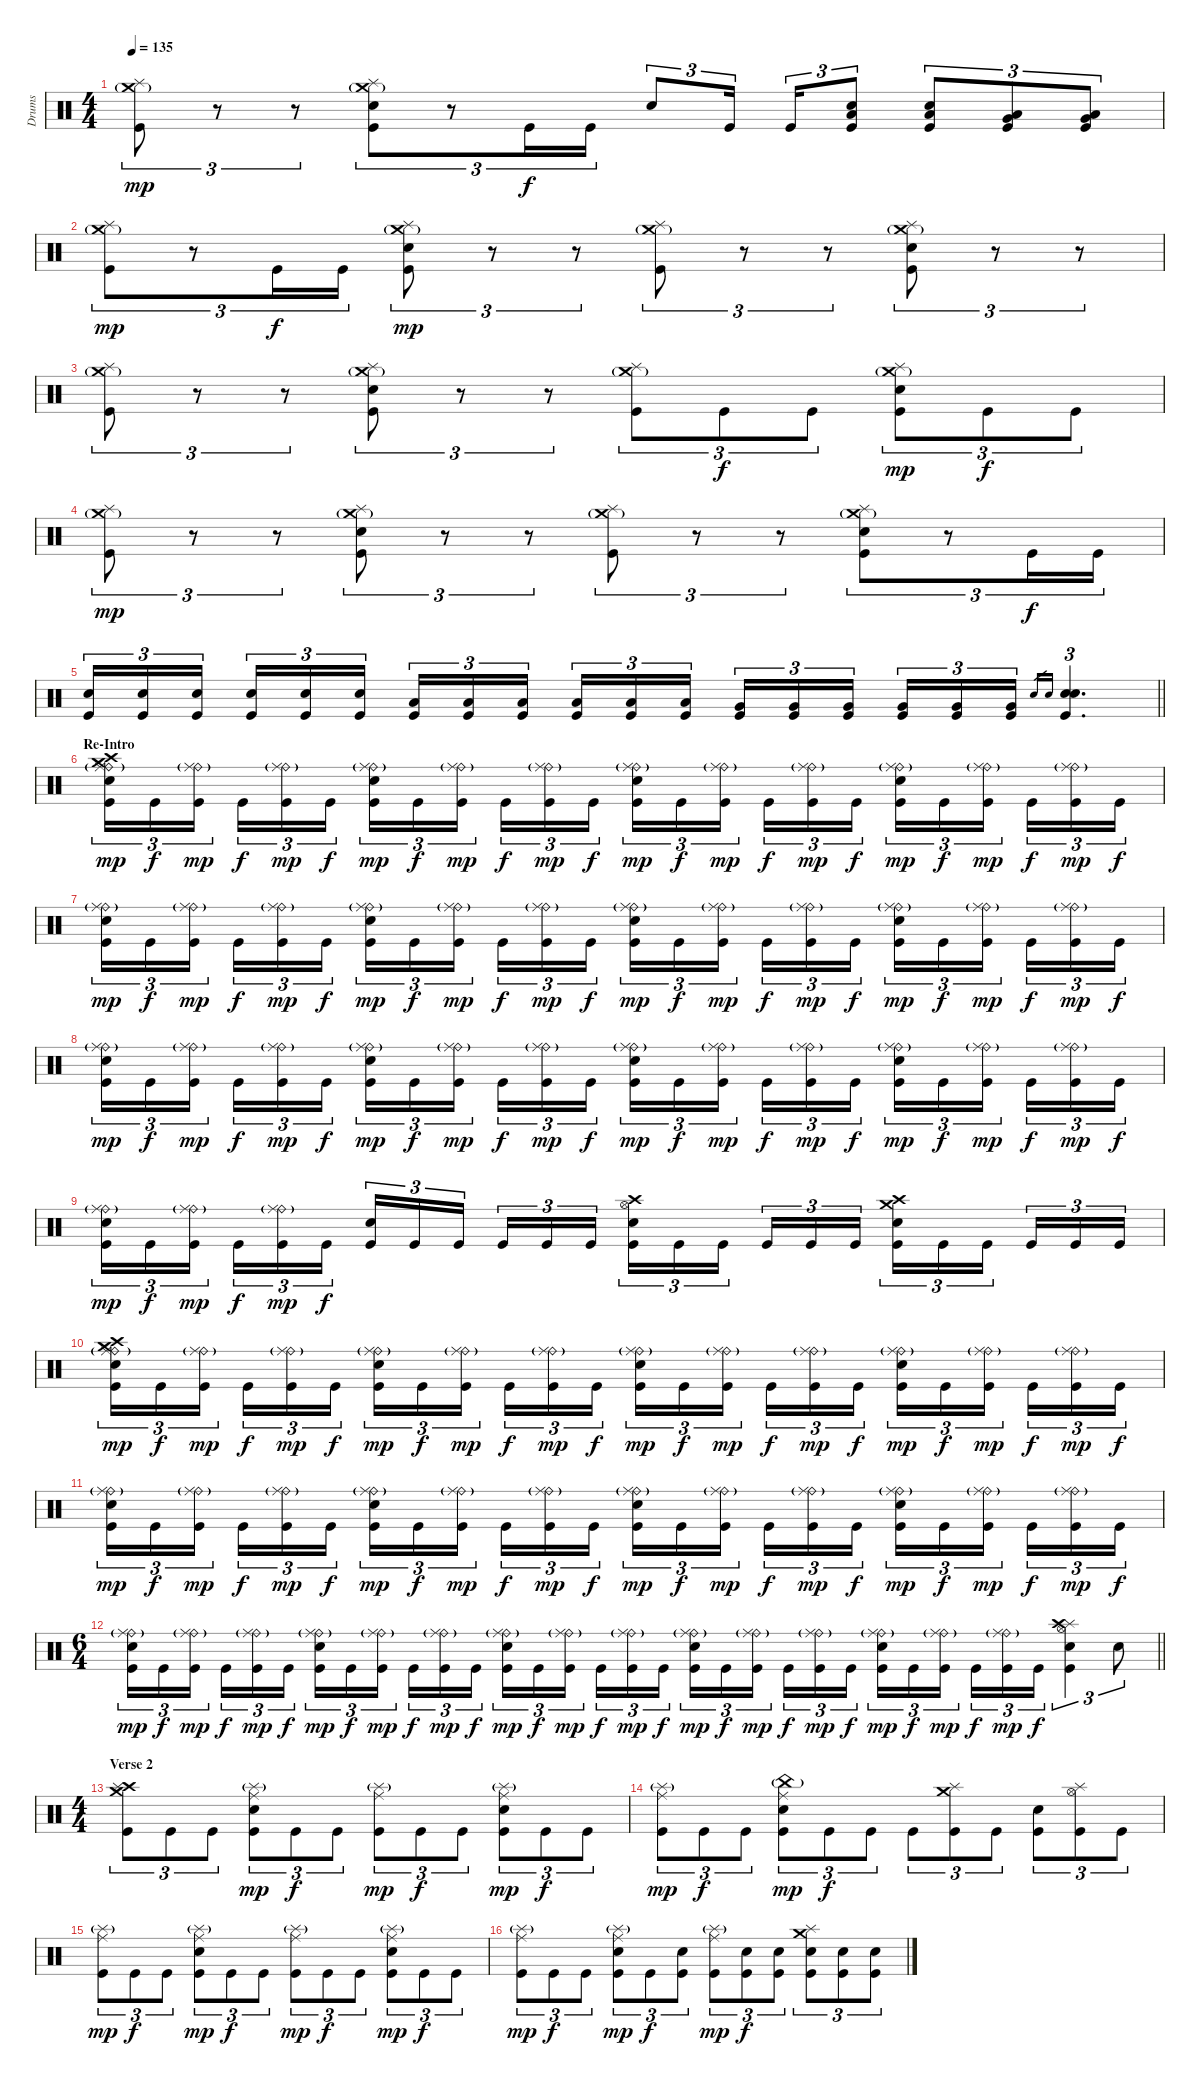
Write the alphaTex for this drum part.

\track ("Drums" "Drums") {instrument percussion}
\staff {score}
\articulation defaults
\ts (4 4)
\tempo 135
\clef neutral
\ks c
("Crash medium (hit)"{g} "Splash (hit)" "Kick (hit)").8{tu (3 2) dy mp} r.8{tu (3 2)} r.8{tu (3 2)} ("Crash medium (hit)"{g} "Splash (hit)" "Electric Snare (hit)" "Kick (hit)").8{tu (3 2)} r.8{tu (3 2)} "Kick (hit)".16{tu (3 2) dy f} "Kick (hit)".16{tu (3 2)} "Electric Snare (hit)".8{tu (3 2)} "Kick (hit)".16{tu (3 2) beam splitsecondary} "Kick (hit)".16{tu (3 2)} ("Kick (hit)" "Low Tom (hit)" "Electric Snare (hit)").8{tu (3 2)} ("Kick (hit)" "Low Tom (hit)" "Electric Snare (hit)").8{tu (3 2)} ("Kick (hit)" "Very Low Tom (hit)" "Low Floor Tom (hit)").8{tu (3 2)} ("Kick (hit)" "Very Low Tom (hit)" "Low Floor Tom (hit)").8{tu (3 2)} |
("Crash medium (hit)"{g} "Splash (hit)" "Kick (hit)").8{tu (3 2) dy mp} r.8{tu (3 2)} "Kick (hit)".16{tu (3 2) dy f} "Kick (hit)".16{tu (3 2)} ("Crash medium (hit)"{g} "Splash (hit)" "Electric Snare (hit)" "Kick (hit)").8{tu (3 2) dy mp} r.8{tu (3 2)} r.8{tu (3 2)} ("Crash medium (hit)"{g} "Splash (hit)" "Kick (hit)").8{tu (3 2)} r.8{tu (3 2)} r.8{tu (3 2)} ("Crash medium (hit)"{g} "Splash (hit)" "Electric Snare (hit)" "Kick (hit)").8{tu (3 2)} r.8{tu (3 2)} r.8{tu (3 2)} |
("Crash medium (hit)"{g} "Splash (hit)" "Kick (hit)").8{tu (3 2)} r.8{tu (3 2)} r.8{tu (3 2)} ("Crash medium (hit)"{g} "Splash (hit)" "Electric Snare (hit)" "Kick (hit)").8{tu (3 2)} r.8{tu (3 2)} r.8{tu (3 2)} ("Crash medium (hit)"{g} "Splash (hit)" "Kick (hit)").8{tu (3 2)} "Kick (hit)".8{tu (3 2) dy f} "Kick (hit)".8{tu (3 2)} ("Crash medium (hit)"{g} "Splash (hit)" "Electric Snare (hit)" "Kick (hit)").8{tu (3 2) dy mp} "Kick (hit)".8{tu (3 2) dy f} "Kick (hit)".8{tu (3 2)} |
("Crash medium (hit)"{g} "Splash (hit)" "Kick (hit)").8{tu (3 2) dy mp} r.8{tu (3 2)} r.8{tu (3 2)} ("Crash medium (hit)"{g} "Splash (hit)" "Electric Snare (hit)" "Kick (hit)").8{tu (3 2)} r.8{tu (3 2)} r.8{tu (3 2)} ("Crash medium (hit)"{g} "Splash (hit)" "Kick (hit)").8{tu (3 2)} r.8{tu (3 2)} r.8{tu (3 2)} ("Crash medium (hit)"{g} "Splash (hit)" "Electric Snare (hit)" "Kick (hit)").8{tu (3 2)} r.8{tu (3 2)} "Kick (hit)".16{tu (3 2) dy f} "Kick (hit)".16{tu (3 2)} |
\barLineRight lightlight
("Kick (hit)" "Electric Snare (hit)").16{tu (3 2)} ("Kick (hit)" "Electric Snare (hit)").16{tu (3 2)} ("Kick (hit)" "Electric Snare (hit)").16{tu (3 2) beam splitsecondary} ("Kick (hit)" "Electric Snare (hit)").16{tu (3 2)} ("Kick (hit)" "Electric Snare (hit)").16{tu (3 2)} ("Kick (hit)" "Electric Snare (hit)").16{tu (3 2)} ("Kick (hit)" "Low Tom (hit)").16{tu (3 2)} ("Kick (hit)" "Low Tom (hit)").16{tu (3 2)} ("Kick (hit)" "Low Tom (hit)").16{tu (3 2) beam splitsecondary} ("Kick (hit)" "Low Tom (hit)").16{tu (3 2)} ("Kick (hit)" "Low Tom (hit)").16{tu (3 2)} ("Kick (hit)" "Low Tom (hit)").16{tu (3 2)} ("Kick (hit)" "Very Low Tom (hit)").16{tu (3 2)} ("Kick (hit)" "Very Low Tom (hit)").16{tu (3 2)} ("Kick (hit)" "Very Low Tom (hit)").16{tu (3 2) beam splitsecondary} ("Kick (hit)" "Very Low Tom (hit)").16{tu (3 2)} ("Kick (hit)" "Very Low Tom (hit)").16{tu (3 2)} ("Kick (hit)" "Very Low Tom (hit)").16{tu (3 2)} "Snare (hit) 2".16{gr} "Electric Snare (hit)".16{gr} ("Snare (hit) 2" "Electric Snare (hit)" "Kick (hit)").4{d tu (3 2)} |
\section ("" "Re-Intro")
("Crash high (hit)" "Ride (bell)" "Ride (middle)"{g} "Crash medium (hit)" "Electric Snare (hit)" "Kick (hit)").16{tu (3 2) dy mp} "Kick (hit)".16{tu (3 2) dy f} ("Ride (bell)" "Ride (middle)"{g} "Kick (hit)").16{tu (3 2) dy mp beam splitsecondary} "Kick (hit)".16{tu (3 2) dy f} ("Ride (bell)" "Ride (middle)"{g} "Kick (hit)").16{tu (3 2) dy mp} "Kick (hit)".16{tu (3 2) dy f} ("Ride (bell)" "Ride (middle)"{g} "Electric Snare (hit)" "Kick (hit)").16{tu (3 2) dy mp} "Kick (hit)".16{tu (3 2) dy f} ("Ride (bell)" "Ride (middle)"{g} "Kick (hit)").16{tu (3 2) dy mp beam splitsecondary} "Kick (hit)".16{tu (3 2) dy f} ("Ride (bell)" "Ride (middle)"{g} "Kick (hit)").16{tu (3 2) dy mp} "Kick (hit)".16{tu (3 2) dy f} ("Ride (bell)" "Ride (middle)"{g} "Electric Snare (hit)" "Kick (hit)").16{tu (3 2) dy mp} "Kick (hit)".16{tu (3 2) dy f} ("Ride (bell)" "Ride (middle)"{g} "Kick (hit)").16{tu (3 2) dy mp beam splitsecondary} "Kick (hit)".16{tu (3 2) dy f} ("Ride (bell)" "Ride (middle)"{g} "Kick (hit)").16{tu (3 2) dy mp} "Kick (hit)".16{tu (3 2) dy f} ("Ride (bell)" "Ride (middle)"{g} "Electric Snare (hit)" "Kick (hit)").16{tu (3 2) dy mp} "Kick (hit)".16{tu (3 2) dy f} ("Ride (bell)" "Ride (middle)"{g} "Kick (hit)").16{tu (3 2) dy mp beam splitsecondary} "Kick (hit)".16{tu (3 2) dy f} ("Ride (bell)" "Ride (middle)"{g} "Kick (hit)").16{tu (3 2) dy mp} "Kick (hit)".16{tu (3 2) dy f} |
("Ride (bell)" "Ride (middle)"{g} "Electric Snare (hit)" "Kick (hit)").16{tu (3 2) dy mp} "Kick (hit)".16{tu (3 2) dy f} ("Ride (bell)" "Ride (middle)"{g} "Kick (hit)").16{tu (3 2) dy mp beam splitsecondary} "Kick (hit)".16{tu (3 2) dy f} ("Ride (bell)" "Ride (middle)"{g} "Kick (hit)").16{tu (3 2) dy mp} "Kick (hit)".16{tu (3 2) dy f} ("Ride (bell)" "Ride (middle)"{g} "Electric Snare (hit)" "Kick (hit)").16{tu (3 2) dy mp} "Kick (hit)".16{tu (3 2) dy f} ("Ride (bell)" "Ride (middle)"{g} "Kick (hit)").16{tu (3 2) dy mp beam splitsecondary} "Kick (hit)".16{tu (3 2) dy f} ("Ride (bell)" "Ride (middle)"{g} "Kick (hit)").16{tu (3 2) dy mp} "Kick (hit)".16{tu (3 2) dy f} ("Ride (bell)" "Ride (middle)"{g} "Electric Snare (hit)" "Kick (hit)").16{tu (3 2) dy mp} "Kick (hit)".16{tu (3 2) dy f} ("Ride (bell)" "Ride (middle)"{g} "Kick (hit)").16{tu (3 2) dy mp beam splitsecondary} "Kick (hit)".16{tu (3 2) dy f} ("Ride (bell)" "Ride (middle)"{g} "Kick (hit)").16{tu (3 2) dy mp} "Kick (hit)".16{tu (3 2) dy f} ("Ride (bell)" "Ride (middle)"{g} "Electric Snare (hit)" "Kick (hit)").16{tu (3 2) dy mp} "Kick (hit)".16{tu (3 2) dy f} ("Ride (bell)" "Ride (middle)"{g} "Kick (hit)").16{tu (3 2) dy mp beam splitsecondary} "Kick (hit)".16{tu (3 2) dy f} ("Ride (bell)" "Ride (middle)"{g} "Kick (hit)").16{tu (3 2) dy mp} "Kick (hit)".16{tu (3 2) dy f} |
("Ride (bell)" "Ride (middle)"{g} "Electric Snare (hit)" "Kick (hit)").16{tu (3 2) dy mp} "Kick (hit)".16{tu (3 2) dy f} ("Ride (bell)" "Ride (middle)"{g} "Kick (hit)").16{tu (3 2) dy mp beam splitsecondary} "Kick (hit)".16{tu (3 2) dy f} ("Ride (bell)" "Ride (middle)"{g} "Kick (hit)").16{tu (3 2) dy mp} "Kick (hit)".16{tu (3 2) dy f} ("Ride (bell)" "Ride (middle)"{g} "Electric Snare (hit)" "Kick (hit)").16{tu (3 2) dy mp} "Kick (hit)".16{tu (3 2) dy f} ("Ride (bell)" "Ride (middle)"{g} "Kick (hit)").16{tu (3 2) dy mp beam splitsecondary} "Kick (hit)".16{tu (3 2) dy f} ("Ride (bell)" "Ride (middle)"{g} "Kick (hit)").16{tu (3 2) dy mp} "Kick (hit)".16{tu (3 2) dy f} ("Ride (bell)" "Ride (middle)"{g} "Electric Snare (hit)" "Kick (hit)").16{tu (3 2) dy mp} "Kick (hit)".16{tu (3 2) dy f} ("Ride (bell)" "Ride (middle)"{g} "Kick (hit)").16{tu (3 2) dy mp beam splitsecondary} "Kick (hit)".16{tu (3 2) dy f} ("Ride (bell)" "Ride (middle)"{g} "Kick (hit)").16{tu (3 2) dy mp} "Kick (hit)".16{tu (3 2) dy f} ("Ride (bell)" "Ride (middle)"{g} "Electric Snare (hit)" "Kick (hit)").16{tu (3 2) dy mp} "Kick (hit)".16{tu (3 2) dy f} ("Ride (bell)" "Ride (middle)"{g} "Kick (hit)").16{tu (3 2) dy mp beam splitsecondary} "Kick (hit)".16{tu (3 2) dy f} ("Ride (bell)" "Ride (middle)"{g} "Kick (hit)").16{tu (3 2) dy mp} "Kick (hit)".16{tu (3 2) dy f} |
("Ride (bell)" "Ride (middle)"{g} "Electric Snare (hit)" "Kick (hit)").16{tu (3 2) dy mp} "Kick (hit)".16{tu (3 2) dy f} ("Ride (bell)" "Ride (middle)"{g} "Kick (hit)").16{tu (3 2) dy mp beam splitsecondary} "Kick (hit)".16{tu (3 2) dy f} ("Ride (bell)" "Ride (middle)"{g} "Kick (hit)").16{tu (3 2) dy mp} "Kick (hit)".16{tu (3 2) dy f} ("Electric Snare (hit)" "Kick (hit)").16{tu (3 2)} "Kick (hit)".16{tu (3 2)} "Kick (hit)".16{tu (3 2) beam splitsecondary} "Kick (hit)".16{tu (3 2)} "Kick (hit)".16{tu (3 2)} "Kick (hit)".16{tu (3 2)} ("Hi-Hat (open)" "Crash high (hit)" "Electric Snare (hit)" "Kick (hit)").16{tu (3 2)} "Kick (hit)".16{tu (3 2)} "Kick (hit)".16{tu (3 2) beam splitsecondary} "Kick (hit)".16{tu (3 2)} "Kick (hit)".16{tu (3 2)} "Kick (hit)".16{tu (3 2)} ("Crash medium (hit)" "Crash high (hit)" "Electric Snare (hit)" "Kick (hit)").16{tu (3 2)} "Kick (hit)".16{tu (3 2)} "Kick (hit)".16{tu (3 2) beam splitsecondary} "Kick (hit)".16{tu (3 2)} "Kick (hit)".16{tu (3 2)} "Kick (hit)".16{tu (3 2)} |
("Crash high (hit)" "Ride (bell)" "Ride (middle)"{g} "Crash medium (hit)" "Electric Snare (hit)" "Kick (hit)").16{tu (3 2) dy mp} "Kick (hit)".16{tu (3 2) dy f} ("Ride (bell)" "Ride (middle)"{g} "Kick (hit)").16{tu (3 2) dy mp beam splitsecondary} "Kick (hit)".16{tu (3 2) dy f} ("Ride (bell)" "Ride (middle)"{g} "Kick (hit)").16{tu (3 2) dy mp} "Kick (hit)".16{tu (3 2) dy f} ("Ride (bell)" "Ride (middle)"{g} "Electric Snare (hit)" "Kick (hit)").16{tu (3 2) dy mp} "Kick (hit)".16{tu (3 2) dy f} ("Ride (bell)" "Ride (middle)"{g} "Kick (hit)").16{tu (3 2) dy mp beam splitsecondary} "Kick (hit)".16{tu (3 2) dy f} ("Ride (bell)" "Ride (middle)"{g} "Kick (hit)").16{tu (3 2) dy mp} "Kick (hit)".16{tu (3 2) dy f} ("Ride (bell)" "Ride (middle)"{g} "Electric Snare (hit)" "Kick (hit)").16{tu (3 2) dy mp} "Kick (hit)".16{tu (3 2) dy f} ("Ride (bell)" "Ride (middle)"{g} "Kick (hit)").16{tu (3 2) dy mp beam splitsecondary} "Kick (hit)".16{tu (3 2) dy f} ("Ride (bell)" "Ride (middle)"{g} "Kick (hit)").16{tu (3 2) dy mp} "Kick (hit)".16{tu (3 2) dy f} ("Ride (bell)" "Ride (middle)"{g} "Electric Snare (hit)" "Kick (hit)").16{tu (3 2) dy mp} "Kick (hit)".16{tu (3 2) dy f} ("Ride (bell)" "Ride (middle)"{g} "Kick (hit)").16{tu (3 2) dy mp beam splitsecondary} "Kick (hit)".16{tu (3 2) dy f} ("Ride (bell)" "Ride (middle)"{g} "Kick (hit)").16{tu (3 2) dy mp} "Kick (hit)".16{tu (3 2) dy f} |
("Ride (bell)" "Ride (middle)"{g} "Electric Snare (hit)" "Kick (hit)").16{tu (3 2) dy mp} "Kick (hit)".16{tu (3 2) dy f} ("Ride (bell)" "Ride (middle)"{g} "Kick (hit)").16{tu (3 2) dy mp beam splitsecondary} "Kick (hit)".16{tu (3 2) dy f} ("Ride (bell)" "Ride (middle)"{g} "Kick (hit)").16{tu (3 2) dy mp} "Kick (hit)".16{tu (3 2) dy f} ("Ride (bell)" "Ride (middle)"{g} "Electric Snare (hit)" "Kick (hit)").16{tu (3 2) dy mp} "Kick (hit)".16{tu (3 2) dy f} ("Ride (bell)" "Ride (middle)"{g} "Kick (hit)").16{tu (3 2) dy mp beam splitsecondary} "Kick (hit)".16{tu (3 2) dy f} ("Ride (bell)" "Ride (middle)"{g} "Kick (hit)").16{tu (3 2) dy mp} "Kick (hit)".16{tu (3 2) dy f} ("Ride (bell)" "Ride (middle)"{g} "Electric Snare (hit)" "Kick (hit)").16{tu (3 2) dy mp} "Kick (hit)".16{tu (3 2) dy f} ("Ride (bell)" "Ride (middle)"{g} "Kick (hit)").16{tu (3 2) dy mp beam splitsecondary} "Kick (hit)".16{tu (3 2) dy f} ("Ride (bell)" "Ride (middle)"{g} "Kick (hit)").16{tu (3 2) dy mp} "Kick (hit)".16{tu (3 2) dy f} ("Ride (bell)" "Ride (middle)"{g} "Electric Snare (hit)" "Kick (hit)").16{tu (3 2) dy mp} "Kick (hit)".16{tu (3 2) dy f} ("Ride (bell)" "Ride (middle)"{g} "Kick (hit)").16{tu (3 2) dy mp beam splitsecondary} "Kick (hit)".16{tu (3 2) dy f} ("Ride (bell)" "Ride (middle)"{g} "Kick (hit)").16{tu (3 2) dy mp} "Kick (hit)".16{tu (3 2) dy f} |
\ts (6 4)
\barLineRight lightlight
("Ride (bell)" "Ride (middle)"{g} "Electric Snare (hit)" "Kick (hit)").16{tu (3 2) dy mp} "Kick (hit)".16{tu (3 2) dy f} ("Ride (bell)" "Ride (middle)"{g} "Kick (hit)").16{tu (3 2) dy mp beam splitsecondary} "Kick (hit)".16{tu (3 2) dy f} ("Ride (bell)" "Ride (middle)"{g} "Kick (hit)").16{tu (3 2) dy mp} "Kick (hit)".16{tu (3 2) dy f beam splitsecondary} ("Ride (bell)" "Ride (middle)"{g} "Electric Snare (hit)" "Kick (hit)").16{tu (3 2) dy mp} "Kick (hit)".16{tu (3 2) dy f} ("Ride (bell)" "Ride (middle)"{g} "Kick (hit)").16{tu (3 2) dy mp beam splitsecondary} "Kick (hit)".16{tu (3 2) dy f} ("Ride (bell)" "Ride (middle)"{g} "Kick (hit)").16{tu (3 2) dy mp} "Kick (hit)".16{tu (3 2) dy f beam splitsecondary} ("Ride (bell)" "Ride (middle)"{g} "Electric Snare (hit)" "Kick (hit)").16{tu (3 2) dy mp} "Kick (hit)".16{tu (3 2) dy f} ("Ride (bell)" "Ride (middle)"{g} "Kick (hit)").16{tu (3 2) dy mp beam splitsecondary} "Kick (hit)".16{tu (3 2) dy f} ("Ride (bell)" "Ride (middle)"{g} "Kick (hit)").16{tu (3 2) dy mp} "Kick (hit)".16{tu (3 2) dy f} ("Ride (bell)" "Ride (middle)"{g} "Electric Snare (hit)" "Kick (hit)").16{tu (3 2) dy mp} "Kick (hit)".16{tu (3 2) dy f} ("Ride (bell)" "Ride (middle)"{g} "Kick (hit)").16{tu (3 2) dy mp beam splitsecondary} "Kick (hit)".16{tu (3 2) dy f} ("Ride (bell)" "Ride (middle)"{g} "Kick (hit)").16{tu (3 2) dy mp} "Kick (hit)".16{tu (3 2) dy f beam splitsecondary} ("Ride (bell)" "Ride (middle)"{g} "Electric Snare (hit)" "Kick (hit)").16{tu (3 2) dy mp} "Kick (hit)".16{tu (3 2) dy f} ("Ride (bell)" "Ride (middle)"{g} "Kick (hit)").16{tu (3 2) dy mp beam splitsecondary} "Kick (hit)".16{tu (3 2) dy f} ("Ride (bell)" "Ride (middle)"{g} "Kick (hit)").16{tu (3 2) dy mp} "Kick (hit)".16{tu (3 2) dy f} ("Splash (hit)" "Hi-Hat (open)" "Crash high (hit)" "Electric Snare (hit)" "Kick (hit)").4{tu (3 2)} "Electric Snare (hit)".8{tu (3 2)} |
\ts (4 4)
\section ("" "Verse 2")
("Crash high (hit)" "Crash medium (hit)" "Splash (hit)" "Kick (hit)").8{tu (3 2)} "Kick (hit)".8{tu (3 2)} "Kick (hit)".8{tu (3 2)} ("Ride (middle)" "Splash (hit)"{g} "Electric Snare (hit)" "Kick (hit)").8{tu (3 2) dy mp} "Kick (hit)".8{tu (3 2) dy f} "Kick (hit)".8{tu (3 2)} ("Ride (middle)" "Splash (hit)"{g} "Kick (hit)").8{tu (3 2) dy mp} "Kick (hit)".8{tu (3 2) dy f} "Kick (hit)".8{tu (3 2)} ("Ride (middle)" "Splash (hit)"{g} "Electric Snare (hit)" "Kick (hit)").8{tu (3 2) dy mp} "Kick (hit)".8{tu (3 2) dy f} "Kick (hit)".8{tu (3 2)} |
("Ride (middle)" "Splash (hit)"{g} "Kick (hit)").8{tu (3 2) dy mp} "Kick (hit)".8{tu (3 2) dy f} "Kick (hit)".8{tu (3 2)} ("Ride (middle)" "China (hit)"{g} "Electric Snare (hit)" "Kick (hit)").8{tu (3 2) dy mp} "Kick (hit)".8{tu (3 2) dy f} "Kick (hit)".8{tu (3 2)} "Kick (hit)".8{tu (3 2)} ("Crash medium (hit)" "Splash (hit)" "Kick (hit)").8{tu (3 2)} "Kick (hit)".8{tu (3 2)} ("Electric Snare (hit)" "Kick (hit)").8{tu (3 2)} ("Hi-Hat (open)" "Splash (hit)" "Kick (hit)").8{tu (3 2)} "Kick (hit)".8{tu (3 2)} |
("Ride (middle)" "Splash (hit)"{g} "Kick (hit)").8{tu (3 2) dy mp} "Kick (hit)".8{tu (3 2) dy f} "Kick (hit)".8{tu (3 2)} ("Ride (middle)" "Splash (hit)"{g} "Electric Snare (hit)" "Kick (hit)").8{tu (3 2) dy mp} "Kick (hit)".8{tu (3 2) dy f} "Kick (hit)".8{tu (3 2)} ("Ride (middle)" "Splash (hit)"{g} "Kick (hit)").8{tu (3 2) dy mp} "Kick (hit)".8{tu (3 2) dy f} "Kick (hit)".8{tu (3 2)} ("Ride (middle)" "Splash (hit)"{g} "Electric Snare (hit)" "Kick (hit)").8{tu (3 2) dy mp} "Kick (hit)".8{tu (3 2) dy f} "Kick (hit)".8{tu (3 2)} |
("Ride (middle)" "Splash (hit)"{g} "Kick (hit)").8{tu (3 2) dy mp} "Kick (hit)".8{tu (3 2) dy f} "Kick (hit)".8{tu (3 2)} ("Ride (middle)" "Splash (hit)"{g} "Electric Snare (hit)" "Kick (hit)").8{tu (3 2) dy mp} "Kick (hit)".8{tu (3 2) dy f} ("Electric Snare (hit)" "Kick (hit)").8{tu (3 2)} ("Ride (middle)" "Splash (hit)"{g} "Kick (hit)").8{tu (3 2) dy mp} ("Electric Snare (hit)" "Kick (hit)").8{tu (3 2) dy f} ("Electric Snare (hit)" "Kick (hit)").8{tu (3 2)} ("Crash medium (hit)" "Splash (hit)" "Electric Snare (hit)" "Kick (hit)").8{tu (3 2)} ("Electric Snare (hit)" "Kick (hit)").8{tu (3 2)} ("Electric Snare (hit)" "Kick (hit)").8{tu (3 2)}
